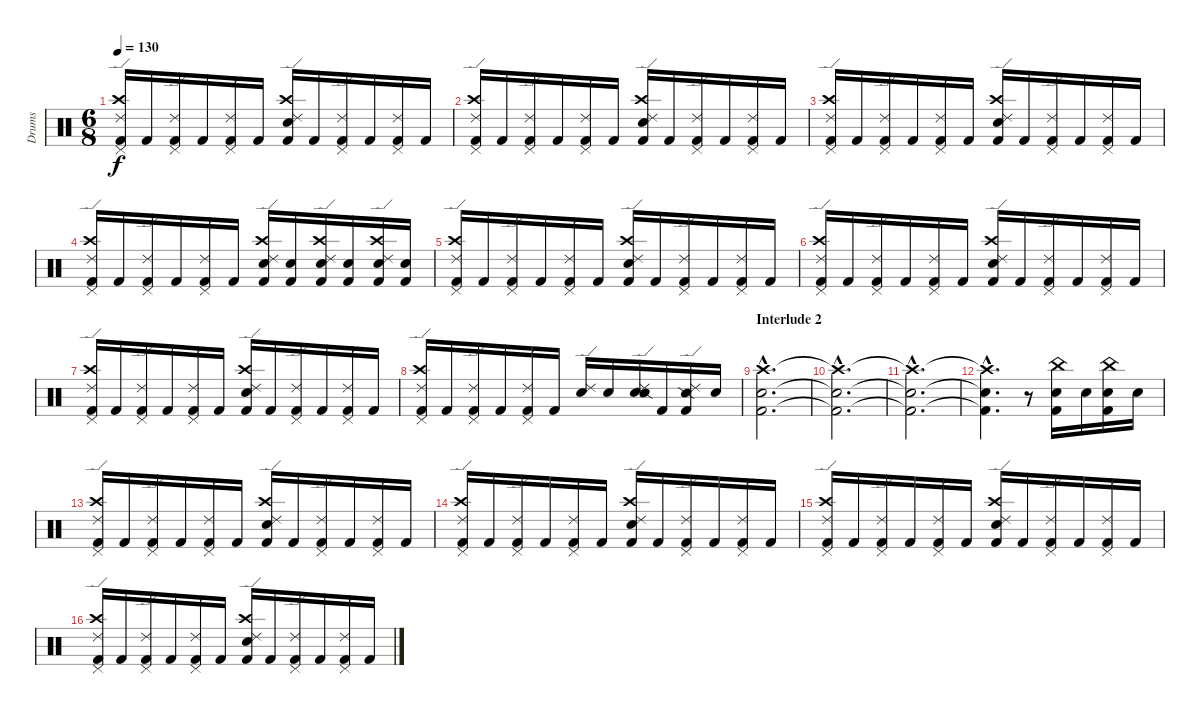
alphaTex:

\track ("Drums" "Drums") {instrument percussion}
\staff {score}
\articulation defaults
\ts (6 8)
\tempo 130
\clef neutral
\ks c
("Ride (edge) 2" "Crash high (hit)" "Pedal Hi-Hat (hit)" "Kick (hit) 2").16{dy f} "Kick (hit) 2".16 ("Ride (edge) 2" "Pedal Hi-Hat (hit)" "Kick (hit) 2").16 "Kick (hit) 2".16 ("Ride (edge) 2" "Pedal Hi-Hat (hit)" "Kick (hit) 2").16 "Kick (hit) 2".16 ("Ride (edge) 2" "Crash high (hit)" "Electric Snare (hit)" "Kick (hit) 2").16 "Kick (hit) 2".16 ("Ride (edge) 2" "Pedal Hi-Hat (hit)" "Kick (hit) 2").16 "Kick (hit) 2".16 ("Ride (edge) 2" "Pedal Hi-Hat (hit)" "Kick (hit) 2").16 "Kick (hit) 2".16 |
("Ride (edge) 2" "Crash high (hit)" "Pedal Hi-Hat (hit)" "Kick (hit) 2").16 "Kick (hit) 2".16 ("Ride (edge) 2" "Pedal Hi-Hat (hit)" "Kick (hit) 2").16 "Kick (hit) 2".16 ("Ride (edge) 2" "Pedal Hi-Hat (hit)" "Kick (hit) 2").16 "Kick (hit) 2".16 ("Ride (edge) 2" "Crash high (hit)" "Electric Snare (hit)" "Kick (hit) 2").16 "Kick (hit) 2".16 ("Ride (edge) 2" "Pedal Hi-Hat (hit)" "Kick (hit) 2").16 "Kick (hit) 2".16 ("Ride (edge) 2" "Pedal Hi-Hat (hit)" "Kick (hit) 2").16 "Kick (hit) 2".16 |
("Ride (edge) 2" "Crash high (hit)" "Pedal Hi-Hat (hit)" "Kick (hit) 2").16 "Kick (hit) 2".16 ("Ride (edge) 2" "Pedal Hi-Hat (hit)" "Kick (hit) 2").16 "Kick (hit) 2".16 ("Ride (edge) 2" "Pedal Hi-Hat (hit)" "Kick (hit) 2").16 "Kick (hit) 2".16 ("Ride (edge) 2" "Crash high (hit)" "Electric Snare (hit)" "Kick (hit) 2").16 "Kick (hit) 2".16 ("Ride (edge) 2" "Pedal Hi-Hat (hit)" "Kick (hit) 2").16 "Kick (hit) 2".16 ("Ride (edge) 2" "Pedal Hi-Hat (hit)" "Kick (hit) 2").16 "Kick (hit) 2".16 |
("Ride (edge) 2" "Crash high (hit)" "Pedal Hi-Hat (hit)" "Kick (hit) 2").16 "Kick (hit) 2".16 ("Ride (edge) 2" "Pedal Hi-Hat (hit)" "Kick (hit) 2").16 "Kick (hit) 2".16 ("Ride (edge) 2" "Pedal Hi-Hat (hit)" "Kick (hit) 2").16 "Kick (hit) 2".16 ("Ride (edge) 2" "Crash high (hit)" "Electric Snare (hit)" "Kick (hit) 2").16 ("Electric Snare (hit)" "Kick (hit) 2").16 ("Ride (edge) 2" "Crash high (hit)" "Electric Snare (hit)" "Kick (hit) 2").16 ("Electric Snare (hit)" "Kick (hit) 2").16 ("Ride (edge) 2" "Crash high (hit)" "Electric Snare (hit)" "Kick (hit) 2").16 ("Electric Snare (hit)" "Kick (hit) 2").16 |
("Ride (edge) 2" "Crash high (hit)" "Pedal Hi-Hat (hit)" "Kick (hit) 2").16 "Kick (hit) 2".16 ("Ride (edge) 2" "Pedal Hi-Hat (hit)" "Kick (hit) 2").16 "Kick (hit) 2".16 ("Ride (edge) 2" "Pedal Hi-Hat (hit)" "Kick (hit) 2").16 "Kick (hit) 2".16 ("Ride (edge) 2" "Crash high (hit)" "Electric Snare (hit)" "Kick (hit) 2").16 "Kick (hit) 2".16 ("Ride (edge) 2" "Pedal Hi-Hat (hit)" "Kick (hit) 2").16 "Kick (hit) 2".16 ("Ride (edge) 2" "Pedal Hi-Hat (hit)" "Kick (hit) 2").16 "Kick (hit) 2".16 |
("Ride (edge) 2" "Crash high (hit)" "Pedal Hi-Hat (hit)" "Kick (hit) 2").16 "Kick (hit) 2".16 ("Ride (edge) 2" "Pedal Hi-Hat (hit)" "Kick (hit) 2").16 "Kick (hit) 2".16 ("Ride (edge) 2" "Pedal Hi-Hat (hit)" "Kick (hit) 2").16 "Kick (hit) 2".16 ("Ride (edge) 2" "Crash high (hit)" "Electric Snare (hit)" "Kick (hit) 2").16 "Kick (hit) 2".16 ("Ride (edge) 2" "Pedal Hi-Hat (hit)" "Kick (hit) 2").16 "Kick (hit) 2".16 ("Ride (edge) 2" "Pedal Hi-Hat (hit)" "Kick (hit) 2").16 "Kick (hit) 2".16 |
("Ride (edge) 2" "Crash high (hit)" "Pedal Hi-Hat (hit)" "Kick (hit) 2").16 "Kick (hit) 2".16 ("Ride (edge) 2" "Pedal Hi-Hat (hit)" "Kick (hit) 2").16 "Kick (hit) 2".16 ("Ride (edge) 2" "Pedal Hi-Hat (hit)" "Kick (hit) 2").16 "Kick (hit) 2".16 ("Ride (edge) 2" "Crash high (hit)" "Electric Snare (hit)" "Kick (hit) 2").16 "Kick (hit) 2".16 ("Ride (edge) 2" "Pedal Hi-Hat (hit)" "Kick (hit) 2").16 "Kick (hit) 2".16 ("Ride (edge) 2" "Pedal Hi-Hat (hit)" "Kick (hit) 2").16 "Kick (hit) 2".16 |
("Ride (edge) 2" "Crash high (hit)" "Pedal Hi-Hat (hit)" "Kick (hit) 2").16 "Kick (hit) 2".16 ("Ride (edge) 2" "Pedal Hi-Hat (hit)" "Kick (hit) 2").16 "Kick (hit) 2".16 ("Ride (edge) 2" "Pedal Hi-Hat (hit)" "Kick (hit) 2").16 "Kick (hit) 2".16 ("Ride (edge) 2" "Electric Snare (hit)").16 "Electric Snare (hit)".16 ("Ride (edge) 2" "Electric Snare (hit)" "Snare (side stick) 2").16 "Kick (hit) 2".16 ("Ride (edge) 2" "Snare (side stick) 2" "Kick (hit) 2").16 "Electric Snare (hit)".16 |
\section ("" "Interlude 2")
("Crash high (hit)"{hac} "Electric Snare (hit)"{hac} "Kick (hit) 2"{hac}).2{d} |
("Crash high (hit)"{hac t} "Electric Snare (hit)"{hac t} "Kick (hit) 2"{hac t}).2{d} |
("Crash high (hit)"{hac t} "Electric Snare (hit)"{hac t} "Kick (hit) 2"{hac t}).2{d} |
("Crash high (hit)"{hac t} "Electric Snare (hit)"{hac t} "Kick (hit) 2"{hac t}).4{d} r.8 ("China (hit)" "Electric Snare (hit)" "Kick (hit) 2").16 "Electric Snare (hit)".16 ("China (hit)" "Electric Snare (hit)" "Kick (hit) 2").16 "Electric Snare (hit)".16 |
("Ride (edge) 2" "Crash high (hit)" "Pedal Hi-Hat (hit)" "Kick (hit) 2").16 "Kick (hit) 2".16 ("Ride (edge) 2" "Pedal Hi-Hat (hit)" "Kick (hit) 2").16 "Kick (hit) 2".16 ("Ride (edge) 2" "Pedal Hi-Hat (hit)" "Kick (hit) 2").16 "Kick (hit) 2".16 ("Ride (edge) 2" "Crash high (hit)" "Electric Snare (hit)" "Kick (hit) 2").16 "Kick (hit) 2".16 ("Ride (edge) 2" "Pedal Hi-Hat (hit)" "Kick (hit) 2").16 "Kick (hit) 2".16 ("Ride (edge) 2" "Pedal Hi-Hat (hit)" "Kick (hit) 2").16 "Kick (hit) 2".16 |
("Ride (edge) 2" "Crash high (hit)" "Pedal Hi-Hat (hit)" "Kick (hit) 2").16 "Kick (hit) 2".16 ("Ride (edge) 2" "Pedal Hi-Hat (hit)" "Kick (hit) 2").16 "Kick (hit) 2".16 ("Ride (edge) 2" "Pedal Hi-Hat (hit)" "Kick (hit) 2").16 "Kick (hit) 2".16 ("Ride (edge) 2" "Crash high (hit)" "Electric Snare (hit)" "Kick (hit) 2").16 "Kick (hit) 2".16 ("Ride (edge) 2" "Pedal Hi-Hat (hit)" "Kick (hit) 2").16 "Kick (hit) 2".16 ("Ride (edge) 2" "Pedal Hi-Hat (hit)" "Kick (hit) 2").16 "Kick (hit) 2".16 |
("Ride (edge) 2" "Crash high (hit)" "Pedal Hi-Hat (hit)" "Kick (hit) 2").16 "Kick (hit) 2".16 ("Ride (edge) 2" "Pedal Hi-Hat (hit)" "Kick (hit) 2").16 "Kick (hit) 2".16 ("Ride (edge) 2" "Pedal Hi-Hat (hit)" "Kick (hit) 2").16 "Kick (hit) 2".16 ("Ride (edge) 2" "Crash high (hit)" "Electric Snare (hit)" "Kick (hit) 2").16 "Kick (hit) 2".16 ("Ride (edge) 2" "Pedal Hi-Hat (hit)" "Kick (hit) 2").16 "Kick (hit) 2".16 ("Ride (edge) 2" "Pedal Hi-Hat (hit)" "Kick (hit) 2").16 "Kick (hit) 2".16 |
("Ride (edge) 2" "Crash high (hit)" "Pedal Hi-Hat (hit)" "Kick (hit) 2").16 "Kick (hit) 2".16 ("Ride (edge) 2" "Pedal Hi-Hat (hit)" "Kick (hit) 2").16 "Kick (hit) 2".16 ("Ride (edge) 2" "Pedal Hi-Hat (hit)" "Kick (hit) 2").16 "Kick (hit) 2".16 ("Ride (edge) 2" "Crash high (hit)" "Electric Snare (hit)" "Kick (hit) 2").16 "Kick (hit) 2".16 ("Ride (edge) 2" "Pedal Hi-Hat (hit)" "Kick (hit) 2").16 "Kick (hit) 2".16 ("Ride (edge) 2" "Pedal Hi-Hat (hit)" "Kick (hit) 2").16 "Kick (hit) 2".16
